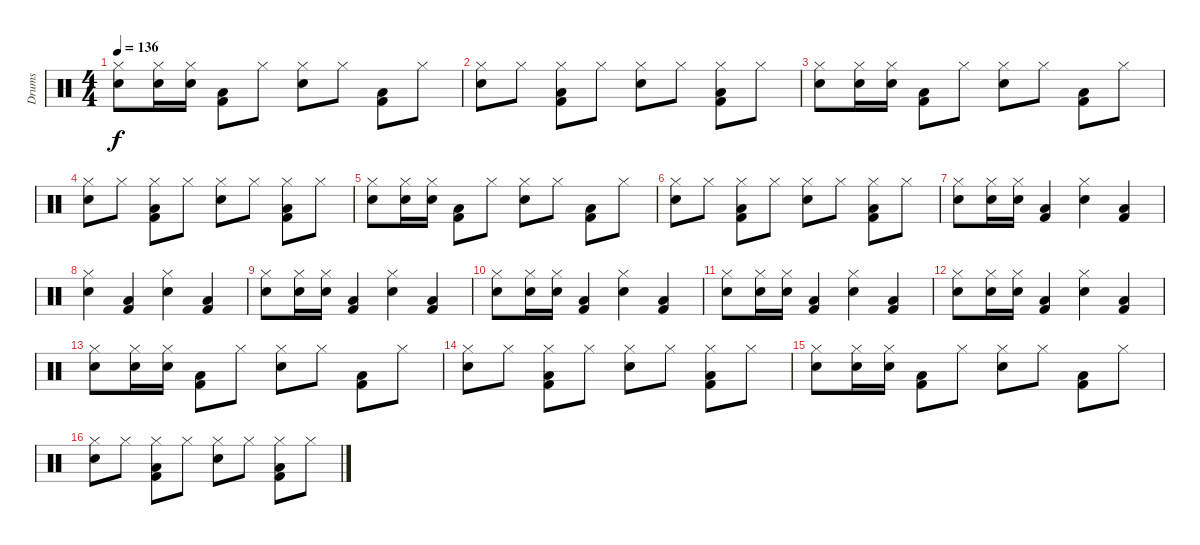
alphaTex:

\track ("Drums" "Drums") {instrument percussion}
\staff {score}
\articulation defaults
\ts (4 4)
\tempo 136
\clef neutral
\ks c
("Hi-Hat (closed)" "Snare (hit) 2").8{dy f} ("Hi-Hat (closed)" "Snare (hit) 2").16 ("Hi-Hat (closed)" "Snare (hit) 2").16 ("Kick (hit) 2" "Low Floor Tom (hit)").8 "Hi-Hat (closed)".8 ("Hi-Hat (closed)" "Snare (hit) 2").8 "Hi-Hat (closed)".8 ("Kick (hit) 2" "Low Floor Tom (hit)").8 "Hi-Hat (closed)".8 |
("Hi-Hat (closed)" "Snare (hit) 2").8 "Hi-Hat (closed)".8 ("Kick (hit) 2" "Low Floor Tom (hit)" "Hi-Hat (closed)").8 "Hi-Hat (closed)".8 ("Hi-Hat (closed)" "Snare (hit) 2").8 "Hi-Hat (closed)".8 ("Kick (hit) 2" "Low Floor Tom (hit)" "Hi-Hat (closed)").8 "Hi-Hat (closed)".8 |
("Hi-Hat (closed)" "Snare (hit) 2").8 ("Hi-Hat (closed)" "Snare (hit) 2").16 ("Hi-Hat (closed)" "Snare (hit) 2").16 ("Kick (hit) 2" "Low Floor Tom (hit)").8 "Hi-Hat (closed)".8 ("Hi-Hat (closed)" "Snare (hit) 2").8 "Hi-Hat (closed)".8 ("Kick (hit) 2" "Low Floor Tom (hit)").8 "Hi-Hat (closed)".8 |
("Hi-Hat (closed)" "Snare (hit) 2").8 "Hi-Hat (closed)".8 ("Kick (hit) 2" "Low Floor Tom (hit)" "Hi-Hat (closed)").8 "Hi-Hat (closed)".8 ("Hi-Hat (closed)" "Snare (hit) 2").8 "Hi-Hat (closed)".8 ("Kick (hit) 2" "Low Floor Tom (hit)" "Hi-Hat (closed)").8 "Hi-Hat (closed)".8 |
("Hi-Hat (closed)" "Snare (hit) 2").8 ("Hi-Hat (closed)" "Snare (hit) 2").16 ("Hi-Hat (closed)" "Snare (hit) 2").16 ("Kick (hit) 2" "Low Floor Tom (hit)").8 "Hi-Hat (closed)".8 ("Hi-Hat (closed)" "Snare (hit) 2").8 "Hi-Hat (closed)".8 ("Kick (hit) 2" "Low Floor Tom (hit)").8 "Hi-Hat (closed)".8 |
("Hi-Hat (closed)" "Snare (hit) 2").8 "Hi-Hat (closed)".8 ("Kick (hit) 2" "Low Floor Tom (hit)" "Hi-Hat (closed)").8 "Hi-Hat (closed)".8 ("Hi-Hat (closed)" "Snare (hit) 2").8 "Hi-Hat (closed)".8 ("Kick (hit) 2" "Low Floor Tom (hit)" "Hi-Hat (closed)").8 "Hi-Hat (closed)".8 |
("Hi-Hat (closed)" "Snare (hit) 2").8 ("Hi-Hat (closed)" "Snare (hit) 2").16 ("Hi-Hat (closed)" "Snare (hit) 2").16 ("Kick (hit) 2" "Low Floor Tom (hit)").4 ("Hi-Hat (closed)" "Snare (hit) 2").4 ("Kick (hit) 2" "Low Floor Tom (hit)").4 |
("Hi-Hat (closed)" "Snare (hit) 2").4 ("Kick (hit) 2" "Low Floor Tom (hit)").4 ("Hi-Hat (closed)" "Snare (hit) 2").4 ("Kick (hit) 2" "Low Floor Tom (hit)").4 |
("Hi-Hat (closed)" "Snare (hit) 2").8 ("Hi-Hat (closed)" "Snare (hit) 2").16 ("Hi-Hat (closed)" "Snare (hit) 2").16 ("Kick (hit) 2" "Low Floor Tom (hit)").4 ("Hi-Hat (closed)" "Snare (hit) 2").4 ("Kick (hit) 2" "Low Floor Tom (hit)").4 |
("Hi-Hat (closed)" "Snare (hit) 2").8 ("Hi-Hat (closed)" "Snare (hit) 2").16 ("Hi-Hat (closed)" "Snare (hit) 2").16 ("Kick (hit) 2" "Low Floor Tom (hit)").4 ("Hi-Hat (closed)" "Snare (hit) 2").4 ("Kick (hit) 2" "Low Floor Tom (hit)").4 |
("Hi-Hat (closed)" "Snare (hit) 2").8 ("Hi-Hat (closed)" "Snare (hit) 2").16 ("Hi-Hat (closed)" "Snare (hit) 2").16 ("Kick (hit) 2" "Low Floor Tom (hit)").4 ("Hi-Hat (closed)" "Snare (hit) 2").4 ("Kick (hit) 2" "Low Floor Tom (hit)").4 |
("Hi-Hat (closed)" "Snare (hit) 2").8 ("Hi-Hat (closed)" "Snare (hit) 2").16 ("Hi-Hat (closed)" "Snare (hit) 2").16 ("Kick (hit) 2" "Low Floor Tom (hit)").4 ("Hi-Hat (closed)" "Snare (hit) 2").4 ("Kick (hit) 2" "Low Floor Tom (hit)").4 |
("Hi-Hat (closed)" "Snare (hit) 2").8 ("Hi-Hat (closed)" "Snare (hit) 2").16 ("Hi-Hat (closed)" "Snare (hit) 2").16 ("Kick (hit) 2" "Low Floor Tom (hit)").8 "Hi-Hat (closed)".8 ("Hi-Hat (closed)" "Snare (hit) 2").8 "Hi-Hat (closed)".8 ("Kick (hit) 2" "Low Floor Tom (hit)").8 "Hi-Hat (closed)".8 |
("Hi-Hat (closed)" "Snare (hit) 2").8 "Hi-Hat (closed)".8 ("Kick (hit) 2" "Low Floor Tom (hit)" "Hi-Hat (closed)").8 "Hi-Hat (closed)".8 ("Hi-Hat (closed)" "Snare (hit) 2").8 "Hi-Hat (closed)".8 ("Kick (hit) 2" "Low Floor Tom (hit)" "Hi-Hat (closed)").8 "Hi-Hat (closed)".8 |
("Hi-Hat (closed)" "Snare (hit) 2").8 ("Hi-Hat (closed)" "Snare (hit) 2").16 ("Hi-Hat (closed)" "Snare (hit) 2").16 ("Kick (hit) 2" "Low Floor Tom (hit)").8 "Hi-Hat (closed)".8 ("Hi-Hat (closed)" "Snare (hit) 2").8 "Hi-Hat (closed)".8 ("Kick (hit) 2" "Low Floor Tom (hit)").8 "Hi-Hat (closed)".8 |
("Hi-Hat (closed)" "Snare (hit) 2").8 "Hi-Hat (closed)".8 ("Kick (hit) 2" "Low Floor Tom (hit)" "Hi-Hat (closed)").8 "Hi-Hat (closed)".8 ("Hi-Hat (closed)" "Snare (hit) 2").8 "Hi-Hat (closed)".8 ("Kick (hit) 2" "Low Floor Tom (hit)" "Hi-Hat (closed)").8 "Hi-Hat (closed)".8
